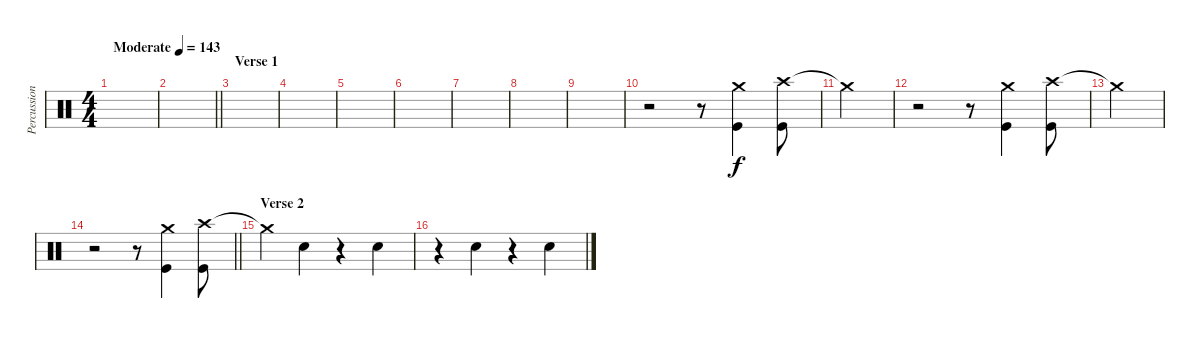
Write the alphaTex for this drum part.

\track ("Percussion" "Percussion") {instrument percussion}
\staff {score}
\articulation defaults
\ts (4 4)
\tempo (143 "Moderate")
\clef neutral
\ks c
|
\barLineRight lightlight
|
\section ("" "Verse 1")
|
|
|
|
|
|
|
r.2 r.8 ("Crash medium (hit)" "Kick (hit)").4 ("Crash high (hit)" "Kick (hit)").8 |
"Crash medium (hit)"{t}.4 |
r.2 r.8 ("Crash medium (hit)" "Kick (hit)").4 ("Crash high (hit)" "Kick (hit)").8 |
"Crash medium (hit)"{t}.4 |
\barLineRight lightlight
r.2 r.8 ("Crash medium (hit)" "Kick (hit)").4 ("Crash high (hit)" "Kick (hit)").8 |
\section ("" "Verse 2")
"Crash medium (hit)"{t}.4 "Snare (hit) 2".4 r.4 "Snare (hit) 2".4 |
r.4 "Snare (hit) 2".4 r.4 "Snare (hit) 2".4
